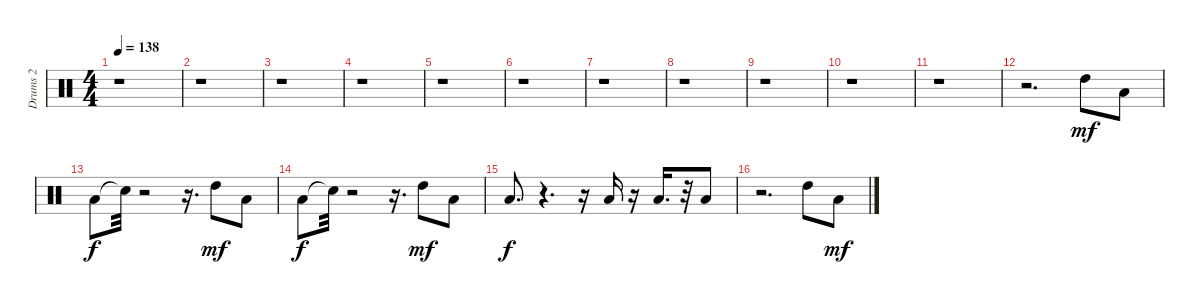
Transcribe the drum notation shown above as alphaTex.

\track ("Drums 2" "Drums 2") {instrument percussion}
\staff {score}
\articulation defaults
\ts (4 4)
\tempo 138
\clef neutral
\ks c
r.1{dy f} |
r.1 |
r.1 |
r.1 |
r.1 |
r.1 |
r.1 |
r.1 |
r.1 |
r.1 |
r.1 |
r.2{d} "High Tom (hit)".8{dy mf} "Low Tom (hit)".8 |
"Low Floor Tom (hit)".8{dy f} "Snare (hit)"{t}.32 r.2 r.16{d} "High Tom (hit)".8{dy mf} "Low Tom (hit)".8 |
"Low Floor Tom (hit)".8{dy f} "Snare (hit)"{t}.32 r.2 r.16{d} "High Tom (hit)".8{dy mf} "Low Tom (hit)".8 |
"Low Floor Tom (hit)".8{d dy f} r.4{d} r.16 "Low Floor Tom (hit)".16 r.16 "Low Floor Tom (hit)".16{d} r.32 "Low Tom (hit)".8 |
r.2{d} "High Tom (hit)".8 "Low Tom (hit)".8{dy mf}
